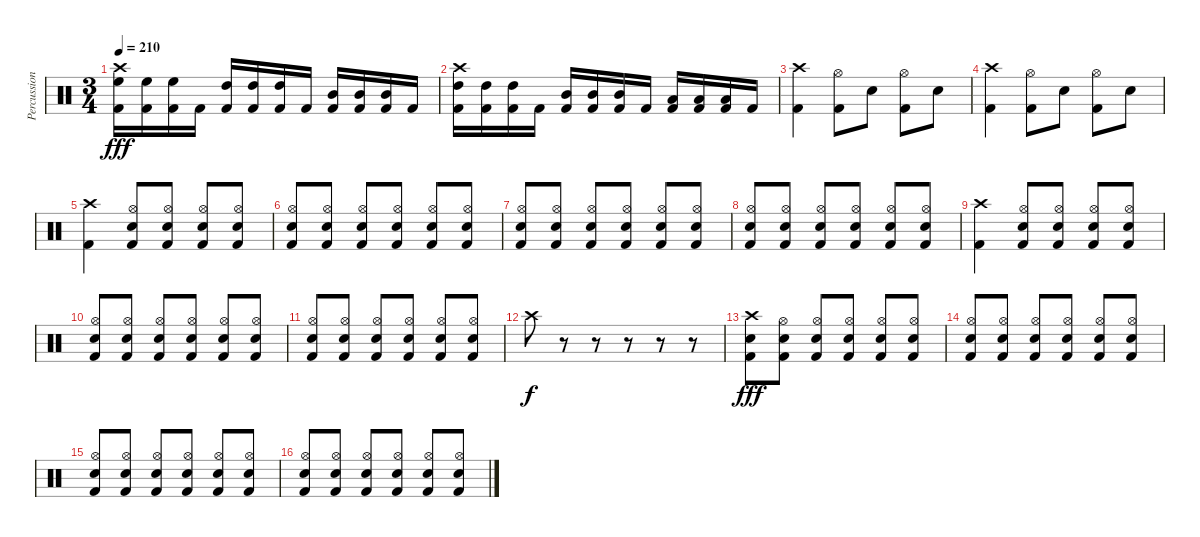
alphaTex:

\track ("Percussion" "Percussion") {instrument percussion}
\staff {score}
\articulation defaults
\ts (3 4)
\tempo 210
\clef neutral
\ks c
("Crash high (hit)" "High Floor Tom (hit)" "Kick (hit) 2").16{dy fff} ("High Floor Tom (hit)" "Kick (hit) 2").16 ("High Floor Tom (hit)" "Kick (hit) 2").16 "Kick (hit) 2".16 ("High Tom (hit)" "Kick (hit) 2").16 ("High Tom (hit)" "Kick (hit) 2").16 ("High Tom (hit)" "Kick (hit) 2").16 "Kick (hit) 2".16 ("Mid Tom (hit)" "Kick (hit) 2").16 ("Mid Tom (hit)" "Kick (hit) 2").16 ("Mid Tom (hit)" "Kick (hit) 2").16 "Kick (hit) 2".16 |
("Crash high (hit)" "High Tom (hit)" "Kick (hit) 2").16 ("High Tom (hit)" "Kick (hit) 2").16 ("High Tom (hit)" "Kick (hit) 2").16 "Kick (hit) 2".16 ("Mid Tom (hit)" "Kick (hit) 2").16 ("Mid Tom (hit)" "Kick (hit) 2").16 ("Mid Tom (hit)" "Kick (hit) 2").16 "Kick (hit) 2".16 ("Low Tom (hit)" "Kick (hit) 2").16 ("Low Tom (hit)" "Kick (hit) 2").16 ("Low Tom (hit)" "Kick (hit) 2").16 "Kick (hit) 2".16 |
("Crash high (hit)" "Kick (hit) 2").4 ("Hi-Hat (open)" "Kick (hit) 2").8 "Electric Snare (hit)".8 ("Hi-Hat (open)" "Kick (hit) 2").8 "Electric Snare (hit)".8 |
("Crash high (hit)" "Kick (hit) 2").4 ("Hi-Hat (open)" "Kick (hit) 2").8 "Electric Snare (hit)".8 ("Hi-Hat (open)" "Kick (hit) 2").8 "Electric Snare (hit)".8 |
("Crash high (hit)" "Kick (hit) 2").4 ("Hi-Hat (open)" "Electric Snare (hit)" "Kick (hit) 2").8 ("Hi-Hat (open)" "Electric Snare (hit)" "Kick (hit) 2").8 ("Hi-Hat (open)" "Electric Snare (hit)" "Kick (hit) 2").8 ("Hi-Hat (open)" "Electric Snare (hit)" "Kick (hit) 2").8 |
("Hi-Hat (open)" "Electric Snare (hit)" "Kick (hit) 2").8 ("Hi-Hat (open)" "Electric Snare (hit)" "Kick (hit) 2").8 ("Hi-Hat (open)" "Electric Snare (hit)" "Kick (hit) 2").8 ("Hi-Hat (open)" "Electric Snare (hit)" "Kick (hit) 2").8 ("Hi-Hat (open)" "Electric Snare (hit)" "Kick (hit) 2").8 ("Hi-Hat (open)" "Electric Snare (hit)" "Kick (hit) 2").8 |
("Hi-Hat (open)" "Electric Snare (hit)" "Kick (hit) 2").8 ("Hi-Hat (open)" "Electric Snare (hit)" "Kick (hit) 2").8 ("Hi-Hat (open)" "Electric Snare (hit)" "Kick (hit) 2").8 ("Hi-Hat (open)" "Electric Snare (hit)" "Kick (hit) 2").8 ("Hi-Hat (open)" "Electric Snare (hit)" "Kick (hit) 2").8 ("Hi-Hat (open)" "Electric Snare (hit)" "Kick (hit) 2").8 |
("Hi-Hat (open)" "Electric Snare (hit)" "Kick (hit) 2").8 ("Hi-Hat (open)" "Electric Snare (hit)" "Kick (hit) 2").8 ("Hi-Hat (open)" "Electric Snare (hit)" "Kick (hit) 2").8 ("Hi-Hat (open)" "Electric Snare (hit)" "Kick (hit) 2").8 ("Hi-Hat (open)" "Electric Snare (hit)" "Kick (hit) 2").8 ("Hi-Hat (open)" "Electric Snare (hit)" "Kick (hit) 2").8 |
("Crash high (hit)" "Kick (hit) 2").4 ("Hi-Hat (open)" "Electric Snare (hit)" "Kick (hit) 2").8 ("Hi-Hat (open)" "Electric Snare (hit)" "Kick (hit) 2").8 ("Hi-Hat (open)" "Electric Snare (hit)" "Kick (hit) 2").8 ("Hi-Hat (open)" "Electric Snare (hit)" "Kick (hit) 2").8 |
("Hi-Hat (open)" "Electric Snare (hit)" "Kick (hit) 2").8 ("Hi-Hat (open)" "Electric Snare (hit)" "Kick (hit) 2").8 ("Hi-Hat (open)" "Electric Snare (hit)" "Kick (hit) 2").8 ("Hi-Hat (open)" "Electric Snare (hit)" "Kick (hit) 2").8 ("Hi-Hat (open)" "Electric Snare (hit)" "Kick (hit) 2").8 ("Hi-Hat (open)" "Electric Snare (hit)" "Kick (hit) 2").8 |
("Hi-Hat (open)" "Electric Snare (hit)" "Kick (hit) 2").8 ("Hi-Hat (open)" "Electric Snare (hit)" "Kick (hit) 2").8 ("Hi-Hat (open)" "Electric Snare (hit)" "Kick (hit) 2").8 ("Hi-Hat (open)" "Electric Snare (hit)" "Kick (hit) 2").8 ("Hi-Hat (open)" "Electric Snare (hit)" "Kick (hit) 2").8 ("Hi-Hat (open)" "Electric Snare (hit)" "Kick (hit) 2").8 |
"Crash high (hit)".8{dy f volume 0} r.8 r.8 r.8 r.8 r.8 |
("Crash high (hit)" "Electric Snare (hit)" "Kick (hit) 2").8{dy fff volume 16} ("Hi-Hat (open)" "Electric Snare (hit)" "Kick (hit) 2").8 ("Hi-Hat (open)" "Electric Snare (hit)" "Kick (hit) 2").8 ("Hi-Hat (open)" "Electric Snare (hit)" "Kick (hit) 2").8 ("Hi-Hat (open)" "Electric Snare (hit)" "Kick (hit) 2").8 ("Hi-Hat (open)" "Electric Snare (hit)" "Kick (hit) 2").8 |
("Hi-Hat (open)" "Electric Snare (hit)" "Kick (hit) 2").8 ("Hi-Hat (open)" "Electric Snare (hit)" "Kick (hit) 2").8 ("Hi-Hat (open)" "Electric Snare (hit)" "Kick (hit) 2").8 ("Hi-Hat (open)" "Electric Snare (hit)" "Kick (hit) 2").8 ("Hi-Hat (open)" "Electric Snare (hit)" "Kick (hit) 2").8 ("Hi-Hat (open)" "Electric Snare (hit)" "Kick (hit) 2").8 |
("Hi-Hat (open)" "Electric Snare (hit)" "Kick (hit) 2").8 ("Hi-Hat (open)" "Electric Snare (hit)" "Kick (hit) 2").8 ("Hi-Hat (open)" "Electric Snare (hit)" "Kick (hit) 2").8 ("Hi-Hat (open)" "Electric Snare (hit)" "Kick (hit) 2").8 ("Hi-Hat (open)" "Electric Snare (hit)" "Kick (hit) 2").8 ("Hi-Hat (open)" "Electric Snare (hit)" "Kick (hit) 2").8 |
("Hi-Hat (open)" "Electric Snare (hit)" "Kick (hit) 2").8 ("Hi-Hat (open)" "Electric Snare (hit)" "Kick (hit) 2").8 ("Hi-Hat (open)" "Electric Snare (hit)" "Kick (hit) 2").8 ("Hi-Hat (open)" "Electric Snare (hit)" "Kick (hit) 2").8 ("Hi-Hat (open)" "Electric Snare (hit)" "Kick (hit) 2").8 ("Hi-Hat (open)" "Electric Snare (hit)" "Kick (hit) 2").8
